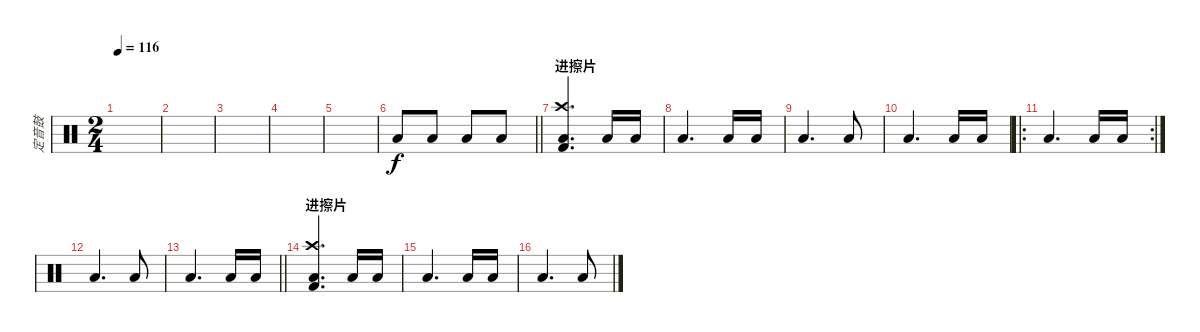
\track ("定音鼓" "定音鼓") {instrument percussion}
\staff {score}
\articulation defaults
\ts (2 4)
\tempo 116
\clef neutral
\ks c
|
|
|
|
|
\barLineRight lightlight "Low Floor Tom (hit)".8 "Low Floor Tom (hit)".8 "Low Floor Tom (hit)".8 "Low Floor Tom (hit)".8
|
\section ("" "进擦片")
("Crash high (hit)" "Low Floor Tom (hit)" "Kick (hit) 2").4{d} "Low Floor Tom (hit)".16 "Low Floor Tom (hit)".16 |
"Low Floor Tom (hit)".4{d} "Low Floor Tom (hit)".16 "Low Floor Tom (hit)".16 |
"Low Floor Tom (hit)".4{d} "Low Floor Tom (hit)".8 |
"Low Floor Tom (hit)".4{d} "Low Floor Tom (hit)".16 "Low Floor Tom (hit)".16 |
\ro
\rc 2 "Low Floor Tom (hit)".4{d} "Low Floor Tom (hit)".16 "Low Floor Tom (hit)".16
|
"Low Floor Tom (hit)".4{d} "Low Floor Tom (hit)".8 |
\barLineRight lightlight "Low Floor Tom (hit)".4{d} "Low Floor Tom (hit)".16 "Low Floor Tom (hit)".16
|
\section ("" "进擦片")
("Crash high (hit)" "Low Floor Tom (hit)" "Kick (hit) 2").4{d} "Low Floor Tom (hit)".16 "Low Floor Tom (hit)".16 |
"Low Floor Tom (hit)".4{d} "Low Floor Tom (hit)".16 "Low Floor Tom (hit)".16 |
"Low Floor Tom (hit)".4{d} "Low Floor Tom (hit)".8
